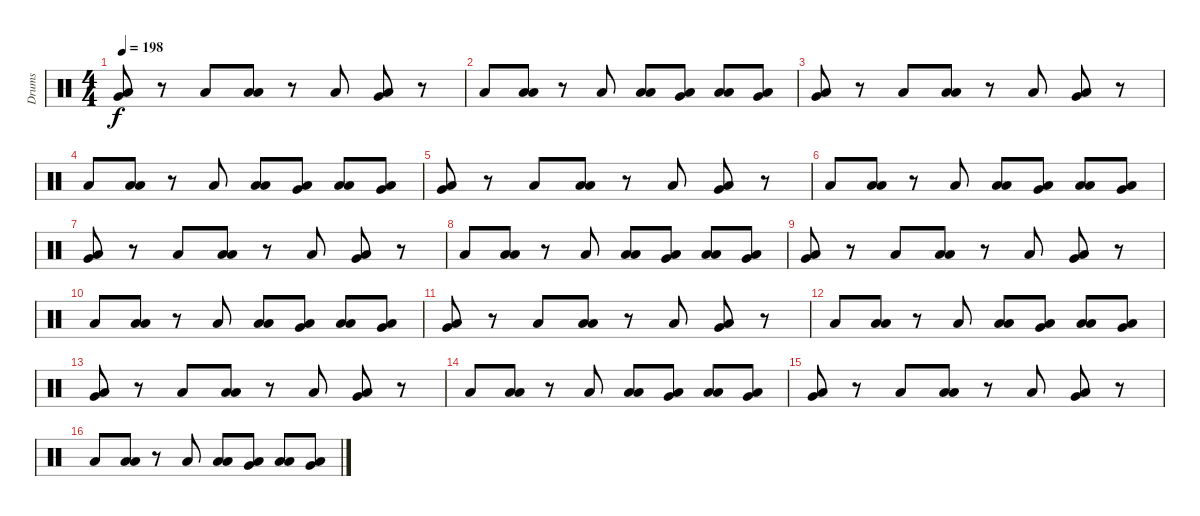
\track ("Drums" "Drums") {instrument percussion}
\staff {score}
\articulation defaults
\ts (4 4)
\tempo 198
\clef neutral
\ks c
("Low Floor Tom (hit)" "Very Low Tom (hit)").8{dy f} r.8 "Low Floor Tom (hit)".8 ("Low Tom (hit)" "Low Floor Tom (hit)").8 r.8 "Low Floor Tom (hit)".8 ("Very Low Tom (hit)" "Low Floor Tom (hit)").8 r.8 |
"Low Floor Tom (hit)".8 ("Low Tom (hit)" "Low Floor Tom (hit)").8 r.8 "Low Floor Tom (hit)".8 ("Low Tom (hit)" "Low Floor Tom (hit)").8 ("Very Low Tom (hit)" "Low Floor Tom (hit)").8 ("Low Tom (hit)" "Low Floor Tom (hit)").8 ("Very Low Tom (hit)" "Low Floor Tom (hit)").8 |
("Low Floor Tom (hit)" "Very Low Tom (hit)").8 r.8 "Low Floor Tom (hit)".8 ("Low Tom (hit)" "Low Floor Tom (hit)").8 r.8 "Low Floor Tom (hit)".8 ("Very Low Tom (hit)" "Low Floor Tom (hit)").8 r.8 |
"Low Floor Tom (hit)".8 ("Low Tom (hit)" "Low Floor Tom (hit)").8 r.8 "Low Floor Tom (hit)".8 ("Low Tom (hit)" "Low Floor Tom (hit)").8 ("Very Low Tom (hit)" "Low Floor Tom (hit)").8 ("Low Tom (hit)" "Low Floor Tom (hit)").8 ("Very Low Tom (hit)" "Low Floor Tom (hit)").8 |
("Low Floor Tom (hit)" "Very Low Tom (hit)").8 r.8 "Low Floor Tom (hit)".8 ("Low Tom (hit)" "Low Floor Tom (hit)").8 r.8 "Low Floor Tom (hit)".8 ("Very Low Tom (hit)" "Low Floor Tom (hit)").8 r.8 |
"Low Floor Tom (hit)".8 ("Low Tom (hit)" "Low Floor Tom (hit)").8 r.8 "Low Floor Tom (hit)".8 ("Low Tom (hit)" "Low Floor Tom (hit)").8 ("Very Low Tom (hit)" "Low Floor Tom (hit)").8 ("Low Tom (hit)" "Low Floor Tom (hit)").8 ("Very Low Tom (hit)" "Low Floor Tom (hit)").8 |
("Low Floor Tom (hit)" "Very Low Tom (hit)").8 r.8 "Low Floor Tom (hit)".8 ("Low Tom (hit)" "Low Floor Tom (hit)").8 r.8 "Low Floor Tom (hit)".8 ("Very Low Tom (hit)" "Low Floor Tom (hit)").8 r.8 |
"Low Floor Tom (hit)".8 ("Low Tom (hit)" "Low Floor Tom (hit)").8 r.8 "Low Floor Tom (hit)".8 ("Low Tom (hit)" "Low Floor Tom (hit)").8 ("Very Low Tom (hit)" "Low Floor Tom (hit)").8 ("Low Tom (hit)" "Low Floor Tom (hit)").8 ("Very Low Tom (hit)" "Low Floor Tom (hit)").8 |
("Low Floor Tom (hit)" "Very Low Tom (hit)").8 r.8 "Low Floor Tom (hit)".8 ("Low Tom (hit)" "Low Floor Tom (hit)").8 r.8 "Low Floor Tom (hit)".8 ("Very Low Tom (hit)" "Low Floor Tom (hit)").8 r.8 |
"Low Floor Tom (hit)".8 ("Low Tom (hit)" "Low Floor Tom (hit)").8 r.8 "Low Floor Tom (hit)".8 ("Low Tom (hit)" "Low Floor Tom (hit)").8 ("Very Low Tom (hit)" "Low Floor Tom (hit)").8 ("Low Tom (hit)" "Low Floor Tom (hit)").8 ("Very Low Tom (hit)" "Low Floor Tom (hit)").8 |
("Low Floor Tom (hit)" "Very Low Tom (hit)").8 r.8 "Low Floor Tom (hit)".8 ("Low Tom (hit)" "Low Floor Tom (hit)").8 r.8 "Low Floor Tom (hit)".8 ("Very Low Tom (hit)" "Low Floor Tom (hit)").8 r.8 |
"Low Floor Tom (hit)".8 ("Low Tom (hit)" "Low Floor Tom (hit)").8 r.8 "Low Floor Tom (hit)".8 ("Low Tom (hit)" "Low Floor Tom (hit)").8 ("Very Low Tom (hit)" "Low Floor Tom (hit)").8 ("Low Tom (hit)" "Low Floor Tom (hit)").8 ("Very Low Tom (hit)" "Low Floor Tom (hit)").8 |
("Low Floor Tom (hit)" "Very Low Tom (hit)").8 r.8 "Low Floor Tom (hit)".8 ("Low Tom (hit)" "Low Floor Tom (hit)").8 r.8 "Low Floor Tom (hit)".8 ("Very Low Tom (hit)" "Low Floor Tom (hit)").8 r.8 |
"Low Floor Tom (hit)".8 ("Low Tom (hit)" "Low Floor Tom (hit)").8 r.8 "Low Floor Tom (hit)".8 ("Low Tom (hit)" "Low Floor Tom (hit)").8 ("Very Low Tom (hit)" "Low Floor Tom (hit)").8 ("Low Tom (hit)" "Low Floor Tom (hit)").8 ("Very Low Tom (hit)" "Low Floor Tom (hit)").8 |
("Low Floor Tom (hit)" "Very Low Tom (hit)").8 r.8 "Low Floor Tom (hit)".8 ("Low Tom (hit)" "Low Floor Tom (hit)").8 r.8 "Low Floor Tom (hit)".8 ("Very Low Tom (hit)" "Low Floor Tom (hit)").8 r.8 |
"Low Floor Tom (hit)".8 ("Low Tom (hit)" "Low Floor Tom (hit)").8 r.8 "Low Floor Tom (hit)".8 ("Low Tom (hit)" "Low Floor Tom (hit)").8 ("Very Low Tom (hit)" "Low Floor Tom (hit)").8 ("Low Tom (hit)" "Low Floor Tom (hit)").8 ("Very Low Tom (hit)" "Low Floor Tom (hit)").8
